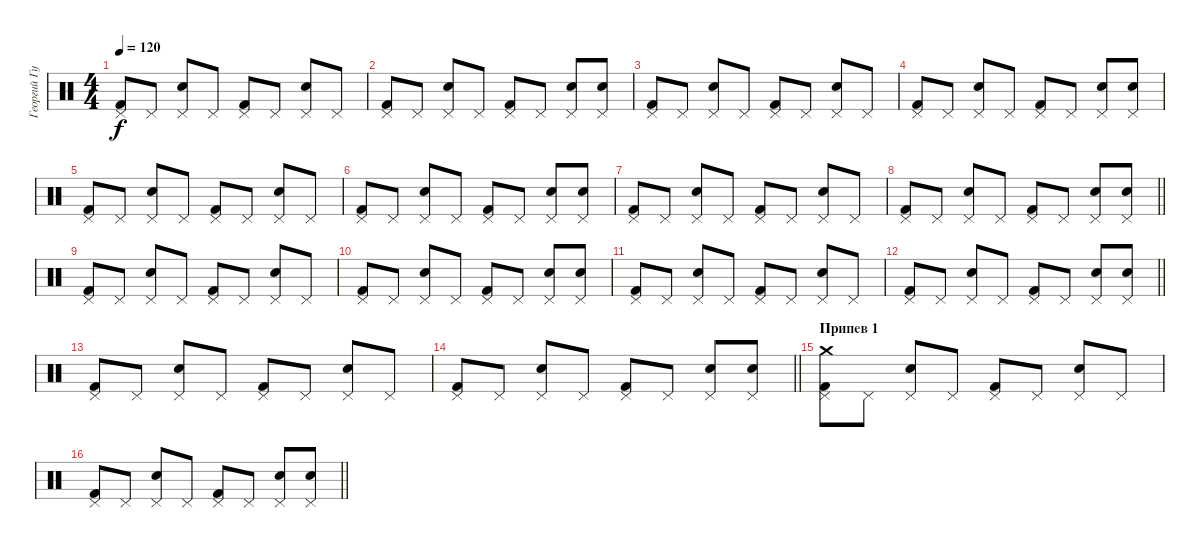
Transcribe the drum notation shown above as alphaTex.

\track ("Георгий Гурьянов" "Георгий Гу") {instrument percussion}
\staff {score}
\articulation defaults
\ts (4 4)
\tempo 120
\clef neutral
\ks c
("Pedal Hi-Hat (hit)" "Kick (hit) 2").8{dy f} "Pedal Hi-Hat (hit)".8 ("Pedal Hi-Hat (hit)" "Snare (hit) 2").8 "Pedal Hi-Hat (hit)".8 ("Pedal Hi-Hat (hit)" "Kick (hit) 2").8 "Pedal Hi-Hat (hit)".8 ("Pedal Hi-Hat (hit)" "Snare (hit) 2").8 "Pedal Hi-Hat (hit)".8 |
("Pedal Hi-Hat (hit)" "Kick (hit) 2").8 "Pedal Hi-Hat (hit)".8 ("Pedal Hi-Hat (hit)" "Snare (hit) 2").8 "Pedal Hi-Hat (hit)".8 ("Pedal Hi-Hat (hit)" "Kick (hit) 2").8 "Pedal Hi-Hat (hit)".8 ("Pedal Hi-Hat (hit)" "Snare (hit) 2").8 ("Pedal Hi-Hat (hit)" "Snare (hit) 2").8 |
("Pedal Hi-Hat (hit)" "Kick (hit) 2").8 "Pedal Hi-Hat (hit)".8 ("Pedal Hi-Hat (hit)" "Snare (hit) 2").8 "Pedal Hi-Hat (hit)".8 ("Pedal Hi-Hat (hit)" "Kick (hit) 2").8 "Pedal Hi-Hat (hit)".8 ("Pedal Hi-Hat (hit)" "Snare (hit) 2").8 "Pedal Hi-Hat (hit)".8 |
("Pedal Hi-Hat (hit)" "Kick (hit) 2").8 "Pedal Hi-Hat (hit)".8 ("Pedal Hi-Hat (hit)" "Snare (hit) 2").8 "Pedal Hi-Hat (hit)".8 ("Pedal Hi-Hat (hit)" "Kick (hit) 2").8 "Pedal Hi-Hat (hit)".8 ("Pedal Hi-Hat (hit)" "Snare (hit) 2").8 ("Pedal Hi-Hat (hit)" "Snare (hit) 2").8 |
("Pedal Hi-Hat (hit)" "Kick (hit) 2").8 "Pedal Hi-Hat (hit)".8 ("Pedal Hi-Hat (hit)" "Snare (hit) 2").8 "Pedal Hi-Hat (hit)".8 ("Pedal Hi-Hat (hit)" "Kick (hit) 2").8 "Pedal Hi-Hat (hit)".8 ("Pedal Hi-Hat (hit)" "Snare (hit) 2").8 "Pedal Hi-Hat (hit)".8 |
("Pedal Hi-Hat (hit)" "Kick (hit) 2").8 "Pedal Hi-Hat (hit)".8 ("Pedal Hi-Hat (hit)" "Snare (hit) 2").8 "Pedal Hi-Hat (hit)".8 ("Pedal Hi-Hat (hit)" "Kick (hit) 2").8 "Pedal Hi-Hat (hit)".8 ("Pedal Hi-Hat (hit)" "Snare (hit) 2").8 ("Pedal Hi-Hat (hit)" "Snare (hit) 2").8 |
("Pedal Hi-Hat (hit)" "Kick (hit) 2").8 "Pedal Hi-Hat (hit)".8 ("Pedal Hi-Hat (hit)" "Snare (hit) 2").8 "Pedal Hi-Hat (hit)".8 ("Pedal Hi-Hat (hit)" "Kick (hit) 2").8 "Pedal Hi-Hat (hit)".8 ("Pedal Hi-Hat (hit)" "Snare (hit) 2").8 "Pedal Hi-Hat (hit)".8 |
\barLineRight lightlight
("Pedal Hi-Hat (hit)" "Kick (hit) 2").8 "Pedal Hi-Hat (hit)".8 ("Pedal Hi-Hat (hit)" "Snare (hit) 2").8 "Pedal Hi-Hat (hit)".8 ("Pedal Hi-Hat (hit)" "Kick (hit) 2").8 "Pedal Hi-Hat (hit)".8 ("Pedal Hi-Hat (hit)" "Snare (hit) 2").8 ("Pedal Hi-Hat (hit)" "Snare (hit) 2").8 |
("Pedal Hi-Hat (hit)" "Kick (hit) 2").8 "Pedal Hi-Hat (hit)".8 ("Pedal Hi-Hat (hit)" "Snare (hit) 2").8 "Pedal Hi-Hat (hit)".8 ("Pedal Hi-Hat (hit)" "Kick (hit) 2").8 "Pedal Hi-Hat (hit)".8 ("Pedal Hi-Hat (hit)" "Snare (hit) 2").8 "Pedal Hi-Hat (hit)".8 |
("Pedal Hi-Hat (hit)" "Kick (hit) 2").8 "Pedal Hi-Hat (hit)".8 ("Pedal Hi-Hat (hit)" "Snare (hit) 2").8 "Pedal Hi-Hat (hit)".8 ("Pedal Hi-Hat (hit)" "Kick (hit) 2").8 "Pedal Hi-Hat (hit)".8 ("Pedal Hi-Hat (hit)" "Snare (hit) 2").8 ("Pedal Hi-Hat (hit)" "Snare (hit) 2").8 |
("Pedal Hi-Hat (hit)" "Kick (hit) 2").8 "Pedal Hi-Hat (hit)".8 ("Pedal Hi-Hat (hit)" "Snare (hit) 2").8 "Pedal Hi-Hat (hit)".8 ("Pedal Hi-Hat (hit)" "Kick (hit) 2").8 "Pedal Hi-Hat (hit)".8 ("Pedal Hi-Hat (hit)" "Snare (hit) 2").8 "Pedal Hi-Hat (hit)".8 |
\barLineRight lightlight
("Pedal Hi-Hat (hit)" "Kick (hit) 2").8 "Pedal Hi-Hat (hit)".8 ("Pedal Hi-Hat (hit)" "Snare (hit) 2").8 "Pedal Hi-Hat (hit)".8 ("Pedal Hi-Hat (hit)" "Kick (hit) 2").8 "Pedal Hi-Hat (hit)".8 ("Pedal Hi-Hat (hit)" "Snare (hit) 2").8 ("Pedal Hi-Hat (hit)" "Snare (hit) 2").8 |
("Pedal Hi-Hat (hit)" "Kick (hit) 2").8 "Pedal Hi-Hat (hit)".8 ("Pedal Hi-Hat (hit)" "Snare (hit) 2").8 "Pedal Hi-Hat (hit)".8 ("Pedal Hi-Hat (hit)" "Kick (hit) 2").8 "Pedal Hi-Hat (hit)".8 ("Pedal Hi-Hat (hit)" "Snare (hit) 2").8 "Pedal Hi-Hat (hit)".8 |
\barLineRight lightlight
("Pedal Hi-Hat (hit)" "Kick (hit) 2").8 "Pedal Hi-Hat (hit)".8 ("Pedal Hi-Hat (hit)" "Snare (hit) 2").8 "Pedal Hi-Hat (hit)".8 ("Pedal Hi-Hat (hit)" "Kick (hit) 2").8 "Pedal Hi-Hat (hit)".8 ("Pedal Hi-Hat (hit)" "Snare (hit) 2").8 ("Pedal Hi-Hat (hit)" "Snare (hit) 2").8 |
\section ("" "Припев 1")
("Pedal Hi-Hat (hit)" "Kick (hit) 2" "Crash medium (hit)").8 "Pedal Hi-Hat (hit)".8 ("Pedal Hi-Hat (hit)" "Snare (hit) 2").8 "Pedal Hi-Hat (hit)".8 ("Pedal Hi-Hat (hit)" "Kick (hit) 2").8 "Pedal Hi-Hat (hit)".8 ("Pedal Hi-Hat (hit)" "Snare (hit) 2").8 "Pedal Hi-Hat (hit)".8 |
\barLineRight lightlight
("Pedal Hi-Hat (hit)" "Kick (hit) 2").8 "Pedal Hi-Hat (hit)".8 ("Pedal Hi-Hat (hit)" "Snare (hit) 2").8 "Pedal Hi-Hat (hit)".8 ("Pedal Hi-Hat (hit)" "Kick (hit) 2").8 "Pedal Hi-Hat (hit)".8 ("Pedal Hi-Hat (hit)" "Snare (hit) 2").8 ("Pedal Hi-Hat (hit)" "Snare (hit) 2").8
